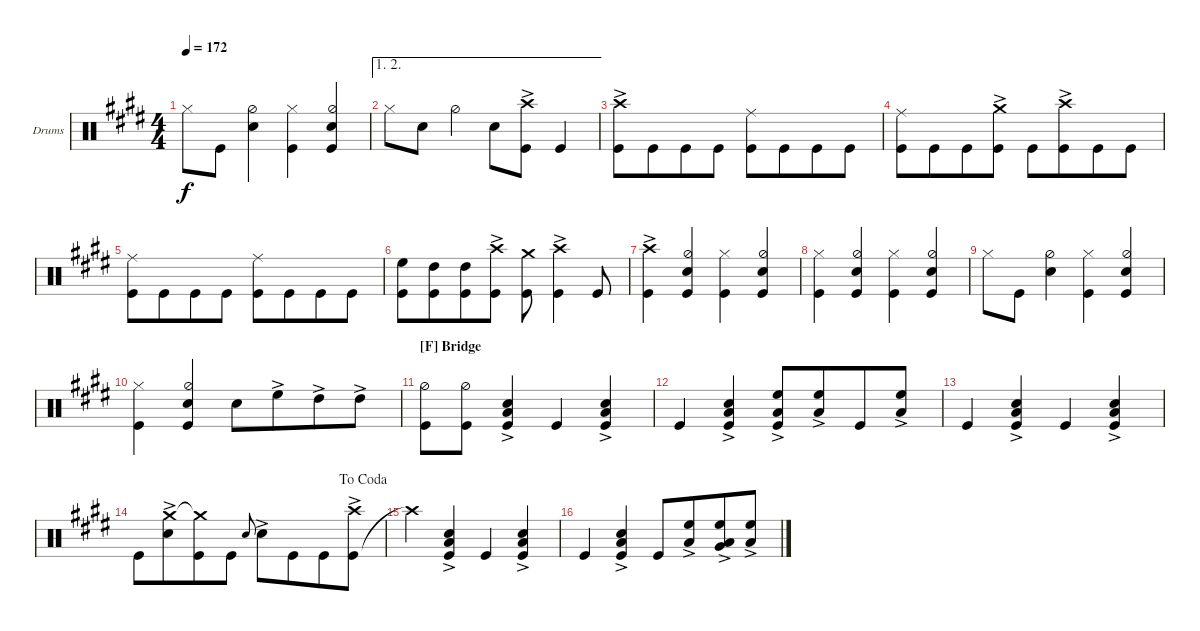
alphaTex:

\bracketExtendMode groupsimilarinstruments
\firstSystemTrackNameOrientation horizontal
\otherSystemsTrackNameOrientation horizontal
\track ("Drums" "Drums") {instrument percussion}
\staff {score}
\articulation defaults
\ts (4 4)
\tempo 172
\clef neutral
\ks e "Hi-Hat (closed)".8{dy f} "Kick (hit)".8{beam merge}
("Hi-Hat (half)" "Snare (hit) 2").4 ("Hi-Hat (closed)" "Kick (hit)").4 ("Hi-Hat (half)" "Snare (hit) 2" "Kick (hit)").4 |
\ae (1 2)
\scale
0.400697 "Hi-Hat (closed)".8 "Snare (hit) 2".8 "Hi-Hat (half)".4 "Snare (hit) 2".8 ("Crash high (hit)"{ac} "Kick (hit)").8 "Kick (hit)".4 |
\scale
0.198606 ("Kick (hit)" "Crash high (hit)"{ac}).8 "Kick (hit)".8{beam merge} "Kick (hit)".8 "Kick (hit)".8 ("Kick (hit)" "Ride (middle)").8 "Kick (hit)".8{beam merge} "Kick (hit)".8 "Kick (hit)".8 |
\scale
0.333333 ("Kick (hit)" "Ride (middle)").8 "Kick (hit)".8{beam merge} "Kick (hit)".8 ("Kick (hit)" "Crash medium (hit)"{ac}).8 "Kick (hit)".8 ("Kick (hit)" "Crash high (hit)"{ac}).8{beam merge} "Kick (hit)".8 "Kick (hit)".8 |
\scale
0.333333 ("Kick (hit)" "Ride (middle)").8 "Kick (hit)".8{beam merge} "Kick (hit)".8 "Kick (hit)".8 ("Kick (hit)" "Ride (middle)").8 "Kick (hit)".8{beam merge} "Kick (hit)".8 "Kick (hit)".8 |
\scale
0.333333 ("Kick (hit)" "High Floor Tom (hit)").8 ("Kick (hit)" "High Tom (hit)").8{beam merge} ("Kick (hit)" "High Tom (hit)").8 ("Kick (hit)" "Crash high (hit)"{ac}).8 ("Kick (hit)" "Crash medium (hit)").8 ("Kick (hit)" "Crash high (hit)"{ac}).4 "Kick (hit)".8 |
\scale
0.333333 ("Kick (hit)" "Crash high (hit)"{ac}).4 ("Kick (hit)" "Hi-Hat (half)" "Snare (hit) 2").4 ("Kick (hit)" "Hi-Hat (closed)").4 ("Kick (hit)" "Hi-Hat (half)" "Snare (hit) 2").4 |
\scale
0.333333 ("Kick (hit)" "Hi-Hat (closed)").4 ("Kick (hit)" "Hi-Hat (half)" "Snare (hit) 2").4 ("Kick (hit)" "Hi-Hat (closed)").4 ("Kick (hit)" "Hi-Hat (half)" "Snare (hit) 2").4 |
\scale
0.333333 "Hi-Hat (closed)".8 "Kick (hit)".8 ("Hi-Hat (half)" "Snare (hit) 2").4 ("Kick (hit)" "Hi-Hat (closed)").4 ("Hi-Hat (half)" "Snare (hit) 2" "Kick (hit)").4 |
\scale
0.311475 ("Kick (hit)" "Hi-Hat (closed)").4 ("Kick (hit)" "Hi-Hat (half)" "Snare (hit) 2").4 "Snare (hit) 2".8 "High Floor Tom (hit)"{ac}.8{beam merge} "High Tom (hit)"{ac}.8 "High Tom (hit)"{ac}.8 |
\section ("F" "Bridge")
\scale
0.377049 ("Kick (hit)" "Hi-Hat (half)").8 ("Kick (hit)" "Hi-Hat (half)").8 ("Snare (hit) 2" "Kick (hit)" "Low Tom (hit)"{ac}).4 "Kick (hit)".4 ("Kick (hit)" "Low Tom (hit)"{ac} "Snare (hit) 2").4 |
\scale
0.311475 "Kick (hit)".4 ("Kick (hit)" "Snare (hit) 2" "Low Tom (hit)"{ac}).4 ("Kick (hit)" "Low Tom (hit)"{ac} "High Floor Tom (hit)"{ac}).8 ("High Floor Tom (hit)"{ac} "Low Tom (hit)"{ac}).8{beam merge} "Kick (hit)".8 ("Low Tom (hit)"{ac} "High Floor Tom (hit)"{ac}).8 |
\scale
0.322034 "Kick (hit)".4 ("Kick (hit)" "Snare (hit) 2" "Low Tom (hit)"{ac}).4 "Kick (hit)".4 ("Kick (hit)" "Low Tom (hit)"{ac} "Snare (hit) 2").4 |
\jump dacoda
\scale
0.355932 "Kick (hit)".8 ("Snare (hit) 2" "Crash medium (hit)"{ac}).8{beam merge} ("Kick (hit)" "Crash medium (hit)"{t}).8 "Kick (hit)".8 "Snare (hit) 2".8{gr onbeat} "Snare (hit) 2"{ac}.8 "Kick (hit)".8{beam merge} "Kick (hit)".8 ("Kick (hit)" "Crash high (hit)"{ac}).8 |
"Crash high (hit)"{t}.4 ("Kick (hit)" "Snare (hit) 2" "Low Tom (hit)"{ac}).4 "Kick (hit)".4 ("Kick (hit)" "Low Tom (hit)"{ac} "Snare (hit) 2").4 |
"Kick (hit)".4 ("Kick (hit)" "Snare (hit) 2" "Low Tom (hit)"{ac}).4 "Kick (hit)".8 ("Low Tom (hit)"{ac} "High Floor Tom (hit)"{ac}).8{beam merge} ("Low Tom (hit)"{ac} "Very Low Tom (hit)"{ac} "High Floor Tom (hit)"{ac}).8 ("Low Tom (hit)"{ac} "High Floor Tom (hit)"{ac}).8
